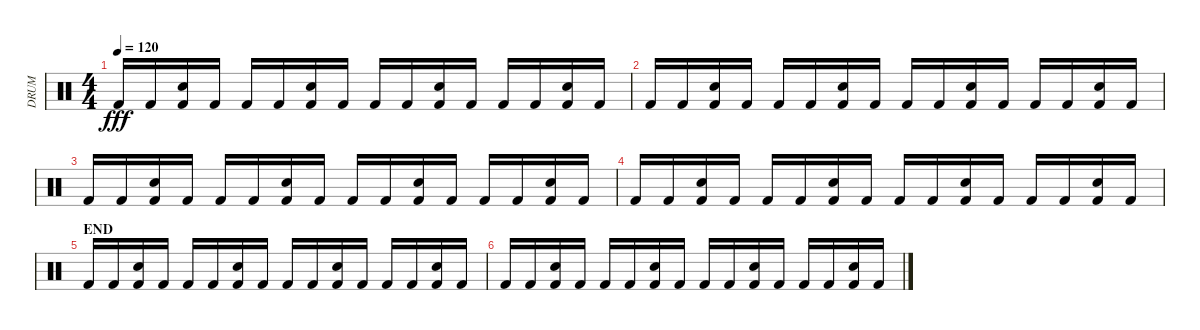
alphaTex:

\track ("DRUM" "DRUM") {instrument percussion}
\staff {score}
\articulation defaults
\ts (4 4)
\tempo 120
\clef neutral
\ks c "Kick (hit) 2".16{dy fff volume 8} "Kick (hit) 2".16
("Kick (hit) 2" "Electric Snare (hit)").16 "Kick (hit) 2".16 "Kick (hit) 2".16 "Kick (hit) 2".16 ("Kick (hit) 2" "Electric Snare (hit)").16 "Kick (hit) 2".16 "Kick (hit) 2".16 "Kick (hit) 2".16 ("Kick (hit) 2" "Electric Snare (hit)").16 "Kick (hit) 2".16 "Kick (hit) 2".16 "Kick (hit) 2".16 ("Kick (hit) 2" "Electric Snare (hit)").16 "Kick (hit) 2".16 |
"Kick (hit) 2".16 "Kick (hit) 2".16 ("Kick (hit) 2" "Electric Snare (hit)").16 "Kick (hit) 2".16 "Kick (hit) 2".16 "Kick (hit) 2".16 ("Kick (hit) 2" "Electric Snare (hit)").16 "Kick (hit) 2".16 "Kick (hit) 2".16 "Kick (hit) 2".16 ("Kick (hit) 2" "Electric Snare (hit)").16 "Kick (hit) 2".16 "Kick (hit) 2".16 "Kick (hit) 2".16 ("Kick (hit) 2" "Electric Snare (hit)").16 "Kick (hit) 2".16 |
"Kick (hit) 2".16 "Kick (hit) 2".16 ("Kick (hit) 2" "Electric Snare (hit)").16 "Kick (hit) 2".16 "Kick (hit) 2".16 "Kick (hit) 2".16 ("Kick (hit) 2" "Electric Snare (hit)").16 "Kick (hit) 2".16 "Kick (hit) 2".16 "Kick (hit) 2".16 ("Kick (hit) 2" "Electric Snare (hit)").16 "Kick (hit) 2".16 "Kick (hit) 2".16 "Kick (hit) 2".16 ("Kick (hit) 2" "Electric Snare (hit)").16 "Kick (hit) 2".16 |
"Kick (hit) 2".16 "Kick (hit) 2".16 ("Kick (hit) 2" "Electric Snare (hit)").16 "Kick (hit) 2".16 "Kick (hit) 2".16 "Kick (hit) 2".16 ("Kick (hit) 2" "Electric Snare (hit)").16 "Kick (hit) 2".16 "Kick (hit) 2".16 "Kick (hit) 2".16 ("Kick (hit) 2" "Electric Snare (hit)").16 "Kick (hit) 2".16 "Kick (hit) 2".16 "Kick (hit) 2".16 ("Kick (hit) 2" "Electric Snare (hit)").16 "Kick (hit) 2".16 |
\section ("" "END")
"Kick (hit) 2".16{volume 2} "Kick (hit) 2".16 ("Kick (hit) 2" "Electric Snare (hit)").16 "Kick (hit) 2".16 "Kick (hit) 2".16 "Kick (hit) 2".16 ("Kick (hit) 2" "Electric Snare (hit)").16 "Kick (hit) 2".16 "Kick (hit) 2".16 "Kick (hit) 2".16 ("Kick (hit) 2" "Electric Snare (hit)").16 "Kick (hit) 2".16 "Kick (hit) 2".16 "Kick (hit) 2".16 ("Kick (hit) 2" "Electric Snare (hit)").16 "Kick (hit) 2".16 |
"Kick (hit) 2".16 "Kick (hit) 2".16 ("Kick (hit) 2" "Electric Snare (hit)").16 "Kick (hit) 2".16 "Kick (hit) 2".16 "Kick (hit) 2".16 ("Kick (hit) 2" "Electric Snare (hit)").16 "Kick (hit) 2".16 "Kick (hit) 2".16 "Kick (hit) 2".16 ("Kick (hit) 2" "Electric Snare (hit)").16 "Kick (hit) 2".16 "Kick (hit) 2".16 "Kick (hit) 2".16 ("Kick (hit) 2" "Electric Snare (hit)").16 "Kick (hit) 2".16
